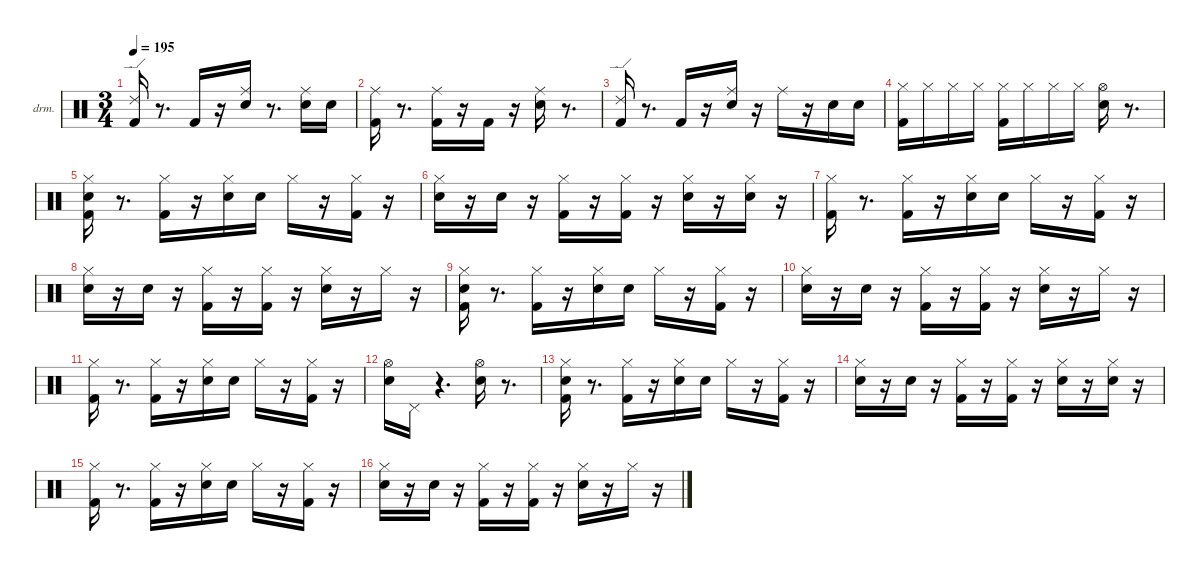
\hideDynamics
\bracketExtendMode nobrackets
\firstSystemTrackNameOrientation horizontal
\otherSystemsTrackNameOrientation horizontal
\track ("EZdrummer 3" "drm.") {instrument percussion}
\staff {score}
\articulation defaults
\ts (3 4)
\tempo 195
\clef neutral
\ks aminor
("Kick (hit) 2" "Ride (edge) 2").16{dy f beam Up} r.8{d beam Up} "Kick (hit) 2".16{beam Up} r.16{beam Up} ("Snare (hit) 2" "Ride (middle)"{acc #}).16{beam Down} r.8{d beam Down} ("Snare (hit) 2" "Ride (middle)"{acc #}).16{beam Down} "Snare (hit) 2".16{dy mp beam Down} |
("Kick (hit) 2" "Ride (middle)"{acc #}).16{dy fff beam Down} r.8{d beam Down} ("Kick (hit) 2" "Ride (middle)"{acc #}).16{dy mp beam Down} r.16{beam Down} "Kick (hit) 2".16{dy f beam Up} r.16{beam Up} ("Snare (hit) 2" "Ride (middle)"{acc #}).16{dy fff beam Down} r.8{d beam Down} |
("Kick (hit) 2" "Ride (edge) 2").16{dy ff beam Up} r.8{d beam Up} "Kick (hit) 2".16{beam Up} r.16{beam Up} ("Snare (hit) 2" "Ride (middle)"{acc #}).16{dy f beam Down} r.16{beam Down} "Ride (middle)"{acc #}.16{dy fff beam Down} r.16{beam Down} "Snare (hit) 2".16{dy f beam Down} "Snare (hit) 2".16{dy mp beam Down} |
("Kick (hit) 2" "Hi-Hat (closed)"{acc #}).16{dy ff beam Down} "Hi-Hat (closed)"{acc #}.16{dy pp beam Down} "Hi-Hat (closed)"{acc #}.16{dy mf beam Down} "Hi-Hat (closed)"{acc #}.16{dy mp beam Down} ("Kick (hit) 2" "Hi-Hat (closed)"{acc #}).16{dy f beam Down} "Hi-Hat (closed)"{acc #}.16{dy pp beam Down} "Hi-Hat (closed)"{acc #}.16{dy mf beam Down} "Hi-Hat (closed)"{acc #}.16{dy p beam Down} ("Snare (hit) 2" "Hi-Hat (open)"{acc #}).16{dy ff beam Down} r.8{d beam Down} |
("Kick (hit) 2" "Snare (hit) 2" "Hi-Hat (closed)"{acc #}).16{dy mp beam Down} r.8{d beam Down} ("Kick (hit) 2" "Hi-Hat (closed)"{acc #}).16{dy mf beam Down} r.16{beam Down} ("Snare (hit) 2" "Hi-Hat (closed)"{acc #}).16{dy f beam Down} "Snare (hit) 2".16{dy pp beam Down} "Hi-Hat (closed)"{acc #}.16{dy ppp beam Down} r.16{beam Down} ("Kick (hit) 2" "Hi-Hat (closed)"{acc #}).16{dy f beam Down} r.16{beam Down} |
("Snare (hit) 2" "Hi-Hat (closed)"{acc #}).16{dy ff beam Down} r.16{beam Down} "Snare (hit) 2".16{dy ppp beam Down} r.16{beam Down} ("Kick (hit) 2" "Hi-Hat (closed)"{acc #}).16{dy p beam Down} r.16{beam Down} ("Kick (hit) 2" "Hi-Hat (closed)"{acc #}).16{dy ff beam Down} r.16{beam Down} ("Snare (hit) 2" "Hi-Hat (closed)"{acc #}).16{dy f beam Down} r.16{beam Down} ("Snare (hit) 2" "Hi-Hat (closed)"{acc #}).16{dy pp beam Down} r.16{beam Down} |
("Kick (hit) 2" "Hi-Hat (closed)"{acc #}).16{dy ff beam Down} r.8{d beam Down} ("Kick (hit) 2" "Hi-Hat (closed)"{acc #}).16{dy mf beam Down} r.16{beam Down} ("Snare (hit) 2" "Hi-Hat (closed)"{acc #}).16{dy f beam Down} "Snare (hit) 2".16{dy pp beam Down} "Hi-Hat (closed)"{acc #}.16{dy ppp beam Down} r.16{beam Down} ("Kick (hit) 2" "Hi-Hat (closed)"{acc #}).16{dy f beam Down} r.16{beam Down} |
("Snare (hit) 2" "Hi-Hat (closed)"{acc #}).16{dy ff beam Down} r.16{beam Down} "Snare (hit) 2".16{dy ppp beam Down} r.16{beam Down} ("Kick (hit) 2" "Hi-Hat (closed)"{acc #}).16{beam Down} r.16{beam Down} ("Kick (hit) 2" "Hi-Hat (closed)"{acc #}).16{beam Down} r.16{beam Down} ("Snare (hit) 2" "Hi-Hat (closed)"{acc #}).16{dy ff beam Down} r.16{beam Down} "Hi-Hat (closed)"{acc #}.16{dy ppp beam Down} r.16{beam Down} |
("Kick (hit) 2" "Snare (hit) 2" "Hi-Hat (closed)"{acc #}).16{dy ff beam Down} r.8{d beam Down} ("Kick (hit) 2" "Hi-Hat (closed)"{acc #}).16{dy mf beam Down} r.16{beam Down} ("Snare (hit) 2" "Hi-Hat (closed)"{acc #}).16{dy f beam Down} "Snare (hit) 2".16{dy pp beam Down} "Hi-Hat (closed)"{acc #}.16{dy ppp beam Down} r.16{beam Down} ("Kick (hit) 2" "Hi-Hat (closed)"{acc #}).16{beam Down} r.16{beam Down} |
("Snare (hit) 2" "Hi-Hat (closed)"{acc #}).16{dy ff beam Down} r.16{beam Down} "Snare (hit) 2".16{dy ppp beam Down} r.16{beam Down} ("Kick (hit) 2" "Hi-Hat (closed)"{acc #}).16{beam Down} r.16{beam Down} ("Kick (hit) 2" "Hi-Hat (closed)"{acc #}).16{dy ff beam Down} r.16{beam Down} ("Snare (hit) 2" "Hi-Hat (closed)"{acc #}).16{dy fff beam Down} r.16{beam Down} "Hi-Hat (closed)"{acc #}.16{dy ppp beam Down} r.16{beam Down} |
("Kick (hit) 2" "Hi-Hat (closed)"{acc #}).16{dy ff beam Down} r.8{d beam Down} ("Kick (hit) 2" "Hi-Hat (closed)"{acc #}).16{dy mf beam Down} r.16{beam Down} ("Snare (hit) 2" "Hi-Hat (closed)"{acc #}).16{dy f beam Down} "Snare (hit) 2".16{dy pp beam Down} "Hi-Hat (closed)"{acc #}.16{dy ppp beam Down} r.16{beam Down} ("Kick (hit) 2" "Hi-Hat (closed)"{acc #}).16{dy f beam Down} r.16{beam Down} |
("Snare (hit) 2" "Hi-Hat (open)"{acc #}).16{dy fff beam Down} "Pedal Hi-Hat (hit)"{acc #}.16{dy ff beam Down} r.4{d beam Down} ("Snare (hit) 2" "Hi-Hat (open)"{acc #}).16{beam Down} r.8{d beam Down} |
("Kick (hit) 2" "Snare (hit) 2" "Hi-Hat (closed)"{acc #}).16{dy fff beam Down} r.8{d beam Down} ("Kick (hit) 2" "Hi-Hat (closed)"{acc #}).16{dy mp beam Down} r.16{beam Down} ("Snare (hit) 2" "Hi-Hat (closed)"{acc #}).16{dy f beam Down} "Snare (hit) 2".16{dy pp beam Down} "Hi-Hat (closed)"{acc #}.16{dy ppp beam Down} r.16{beam Down} ("Kick (hit) 2" "Hi-Hat (closed)"{acc #}).16{dy f beam Down} r.16{beam Down} |
("Snare (hit) 2" "Hi-Hat (closed)"{acc #}).16{dy ff beam Down} r.16{beam Down} "Snare (hit) 2".16{dy ppp beam Down} r.16{beam Down} ("Kick (hit) 2" "Hi-Hat (closed)"{acc #}).16{beam Down} r.16{beam Down} ("Kick (hit) 2" "Hi-Hat (closed)"{acc #}).16{beam Down} r.16{beam Down} ("Snare (hit) 2" "Hi-Hat (closed)"{acc #}).16{dy fff beam Down} r.16{beam Down} ("Snare (hit) 2" "Hi-Hat (closed)"{acc #}).16{dy pp beam Down} r.16{beam Down} |
("Kick (hit) 2" "Hi-Hat (closed)"{acc #}).16{dy ff beam Down} r.8{d beam Down} ("Kick (hit) 2" "Hi-Hat (closed)"{acc #}).16{dy mf beam Down} r.16{beam Down} ("Snare (hit) 2" "Hi-Hat (closed)"{acc #}).16{dy f beam Down} "Snare (hit) 2".16{dy pp beam Down} "Hi-Hat (closed)"{acc #}.16{dy ppp beam Down} r.16{beam Down} ("Kick (hit) 2" "Hi-Hat (closed)"{acc #}).16{dy f beam Down} r.16{beam Down} |
("Snare (hit) 2" "Hi-Hat (closed)"{acc #}).16{dy ff beam Down} r.16{beam Down} "Snare (hit) 2".16{dy ppp beam Down} r.16{beam Down} ("Kick (hit) 2" "Hi-Hat (closed)"{acc #}).16{beam Down} r.16{beam Down} ("Kick (hit) 2" "Hi-Hat (closed)"{acc #}).16{dy ff beam Down} r.16{beam Down} ("Snare (hit) 2" "Hi-Hat (closed)"{acc #}).16{dy f beam Down} r.16{beam Down} "Hi-Hat (closed)"{acc #}.16{dy ppp beam Down} r.16{beam Down}
